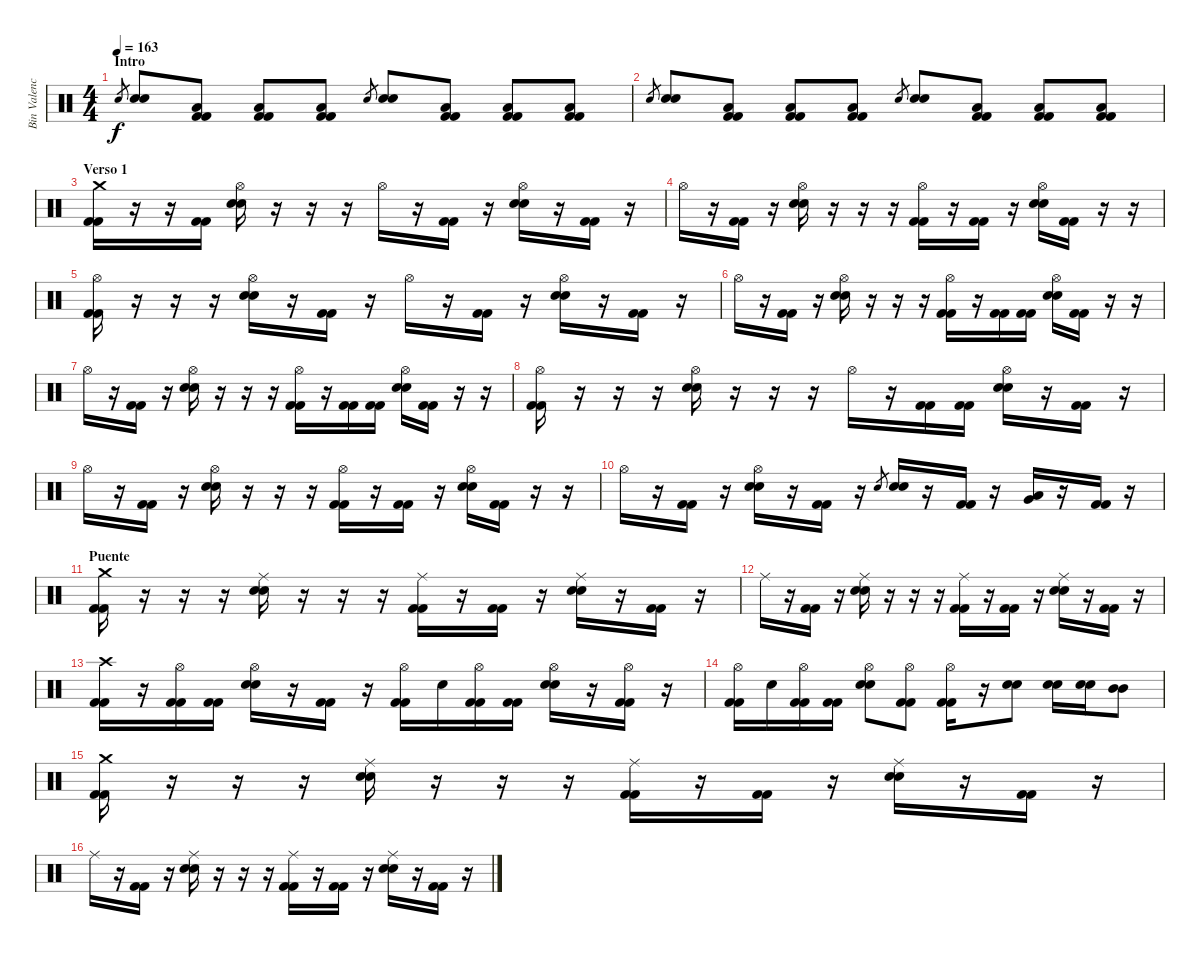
\track ("Bin Valencia" "Bin Valenc") {instrument percussion}
\staff {score}
\articulation defaults
\ts (4 4)
\section ("" "Intro")
\tempo 163
\clef neutral
\ks c "Snare (hit) 2".8{gr dy f}
("Snare (hit) 2" "Snare (hit) 2").8 ("Kick (hit) 2" "Kick (hit) 2" "Low Floor Tom (hit)").8 ("Kick (hit) 2" "Kick (hit) 2" "Low Floor Tom (hit)").8 ("Kick (hit) 2" "Kick (hit) 2" "Low Floor Tom (hit)").8 "Snare (hit) 2".8{gr} ("Snare (hit) 2" "Snare (hit) 2").8 ("Kick (hit) 2" "Kick (hit) 2" "Low Floor Tom (hit)").8 ("Kick (hit) 2" "Kick (hit) 2" "Low Floor Tom (hit)").8 ("Kick (hit) 2" "Kick (hit) 2" "Low Floor Tom (hit)").8 |
"Snare (hit) 2".8{gr} ("Snare (hit) 2" "Snare (hit) 2").8 ("Kick (hit) 2" "Kick (hit) 2" "Low Floor Tom (hit)").8 ("Kick (hit) 2" "Kick (hit) 2" "Low Floor Tom (hit)").8 ("Kick (hit) 2" "Kick (hit) 2" "Low Floor Tom (hit)").8 "Snare (hit) 2".8{gr} ("Snare (hit) 2" "Snare (hit) 2").8 ("Kick (hit) 2" "Kick (hit) 2" "Low Floor Tom (hit)").8 ("Kick (hit) 2" "Kick (hit) 2" "Low Floor Tom (hit)").8 ("Kick (hit) 2" "Kick (hit) 2" "Low Floor Tom (hit)").8 |
\section ("" "Verso 1")
("Crash medium (hit)" "Kick (hit) 2" "Kick (hit) 2").16 r.16 r.16 ("Kick (hit) 2" "Kick (hit) 2").16 ("Hi-Hat (open)" "Snare (hit) 2" "Snare (hit) 2").16 r.16 r.16 r.16 "Hi-Hat (open)".16 r.16 ("Kick (hit) 2" "Kick (hit) 2").16 r.16 ("Hi-Hat (open)" "Snare (hit) 2" "Snare (hit) 2").16 r.16 ("Kick (hit) 2" "Kick (hit) 2").16 r.16 |
"Hi-Hat (open)".16 r.16 ("Kick (hit) 2" "Kick (hit) 2").16 r.16 ("Hi-Hat (open)" "Snare (hit) 2" "Snare (hit) 2").16 r.16 r.16 r.16 ("Hi-Hat (open)" "Kick (hit) 2" "Kick (hit) 2").16 r.16 ("Kick (hit) 2" "Kick (hit) 2").16 r.16 ("Hi-Hat (open)" "Snare (hit) 2" "Snare (hit) 2").16 ("Kick (hit) 2" "Kick (hit) 2").16 r.16 r.16 |
("Hi-Hat (open)" "Kick (hit) 2" "Kick (hit) 2").16 r.16 r.16 r.16 ("Hi-Hat (open)" "Snare (hit) 2" "Snare (hit) 2").16 r.16 ("Kick (hit) 2" "Kick (hit) 2").16 r.16 "Hi-Hat (open)".16 r.16 ("Kick (hit) 2" "Kick (hit) 2").16 r.16 ("Hi-Hat (open)" "Snare (hit) 2" "Snare (hit) 2").16 r.16 ("Kick (hit) 2" "Kick (hit) 2").16 r.16 |
"Hi-Hat (open)".16 r.16 ("Kick (hit) 2" "Kick (hit) 2").16 r.16 ("Hi-Hat (open)" "Snare (hit) 2" "Snare (hit) 2").16 r.16 r.16 r.16 ("Hi-Hat (open)" "Kick (hit) 2" "Kick (hit) 2").16 r.16 ("Kick (hit) 2" "Kick (hit) 2").16 ("Kick (hit) 2" "Kick (hit) 2").16 ("Hi-Hat (open)" "Snare (hit) 2" "Snare (hit) 2").16 ("Kick (hit) 2" "Kick (hit) 2").16 r.16 r.16 |
"Hi-Hat (open)".16 r.16 ("Kick (hit) 2" "Kick (hit) 2").16 r.16 ("Hi-Hat (open)" "Snare (hit) 2" "Snare (hit) 2").16 r.16 r.16 r.16 ("Hi-Hat (open)" "Kick (hit) 2" "Kick (hit) 2").16 r.16 ("Kick (hit) 2" "Kick (hit) 2").16 ("Kick (hit) 2" "Kick (hit) 2").16 ("Hi-Hat (open)" "Snare (hit) 2" "Snare (hit) 2").16 ("Kick (hit) 2" "Kick (hit) 2").16 r.16 r.16 |
("Hi-Hat (open)" "Kick (hit) 2" "Kick (hit) 2").16 r.16 r.16 r.16 ("Hi-Hat (open)" "Snare (hit) 2" "Snare (hit) 2").16 r.16 r.16 r.16 "Hi-Hat (open)".16 r.16 ("Kick (hit) 2" "Kick (hit) 2").16 ("Kick (hit) 2" "Kick (hit) 2").16 ("Hi-Hat (open)" "Snare (hit) 2" "Snare (hit) 2").16 r.16 ("Kick (hit) 2" "Kick (hit) 2").16 r.16 |
"Hi-Hat (open)".16 r.16 ("Kick (hit) 2" "Kick (hit) 2").16 r.16 ("Hi-Hat (open)" "Snare (hit) 2" "Snare (hit) 2").16 r.16 r.16 r.16 ("Hi-Hat (open)" "Kick (hit) 2" "Kick (hit) 2").16 r.16 ("Kick (hit) 2" "Kick (hit) 2").16 r.16 ("Hi-Hat (open)" "Snare (hit) 2" "Snare (hit) 2").16 ("Kick (hit) 2" "Kick (hit) 2").16 r.16 r.16 |
"Hi-Hat (open)".16 r.16 ("Kick (hit) 2" "Kick (hit) 2").16 r.16 ("Hi-Hat (open)" "Snare (hit) 2" "Snare (hit) 2").16 r.16 ("Kick (hit) 2" "Kick (hit) 2").16 r.16 "Snare (hit) 2".8{gr} ("Snare (hit) 2" "Snare (hit) 2").16 r.16 ("Kick (hit) 2" "Kick (hit) 2").16 r.16 ("Very Low Tom (hit)" "Low Floor Tom (hit)").16 r.16 ("Kick (hit) 2" "Kick (hit) 2").16 r.16 |
\section ("" "Puente")
("Crash medium (hit)" "Kick (hit) 2" "Kick (hit) 2").16 r.16 r.16 r.16 ("Ride (middle)" "Snare (hit) 2" "Snare (hit) 2").16 r.16 r.16 r.16 ("Ride (middle)" "Kick (hit) 2" "Kick (hit) 2").16 r.16 ("Kick (hit) 2" "Kick (hit) 2").16 r.16 ("Ride (middle)" "Snare (hit) 2" "Snare (hit) 2").16 r.16 ("Kick (hit) 2" "Kick (hit) 2").16 r.16 |
"Ride (middle)".16 r.16 ("Kick (hit) 2" "Kick (hit) 2").16 r.16 ("Ride (middle)" "Snare (hit) 2" "Snare (hit) 2").16 r.16 r.16 r.16 ("Ride (middle)" "Kick (hit) 2" "Kick (hit) 2").16 r.16 ("Kick (hit) 2" "Kick (hit) 2").16 r.16 ("Ride (middle)" "Snare (hit) 2" "Snare (hit) 2").16 r.16 ("Kick (hit) 2" "Kick (hit) 2").16 r.16 |
("Crash high (hit)" "Kick (hit) 2" "Kick (hit) 2").16 r.16 ("Hi-Hat (open)" "Kick (hit) 2" "Kick (hit) 2").16 ("Kick (hit) 2" "Kick (hit) 2").16 ("Hi-Hat (open)" "Snare (hit) 2" "Snare (hit) 2").16 r.16 ("Kick (hit) 2" "Kick (hit) 2").16 r.16 ("Hi-Hat (open)" "Kick (hit) 2" "Kick (hit) 2").16 "Snare (hit) 2".16 ("Hi-Hat (open)" "Kick (hit) 2" "Kick (hit) 2").16 ("Kick (hit) 2" "Kick (hit) 2").16 ("Hi-Hat (open)" "Snare (hit) 2" "Snare (hit) 2").16 r.16 ("Hi-Hat (open)" "Kick (hit) 2" "Kick (hit) 2").16 r.16 |
("Hi-Hat (open)" "Kick (hit) 2" "Kick (hit) 2").16 "Snare (hit) 2".16 ("Hi-Hat (open)" "Kick (hit) 2" "Kick (hit) 2").16 ("Kick (hit) 2" "Kick (hit) 2").16 ("Hi-Hat (open)" "Snare (hit) 2" "Snare (hit) 2").8 ("Hi-Hat (open)" "Kick (hit) 2" "Kick (hit) 2").8 ("Hi-Hat (open)" "Kick (hit) 2" "Kick (hit) 2").16 r.16 ("Snare (hit) 2" "Snare (hit) 2").8 ("Snare (hit) 2" "Snare (hit) 2").16 ("Snare (hit) 2" "Snare (hit) 2").16 ("Mid Tom (hit)" "Mid Tom (hit)").8 |
("Crash medium (hit)" "Kick (hit) 2" "Kick (hit) 2").16 r.16 r.16 r.16 ("Ride (middle)" "Snare (hit) 2" "Snare (hit) 2").16 r.16 r.16 r.16 ("Ride (middle)" "Kick (hit) 2" "Kick (hit) 2").16 r.16 ("Kick (hit) 2" "Kick (hit) 2").16 r.16 ("Ride (middle)" "Snare (hit) 2" "Snare (hit) 2").16 r.16 ("Kick (hit) 2" "Kick (hit) 2").16 r.16 |
"Ride (middle)".16 r.16 ("Kick (hit) 2" "Kick (hit) 2").16 r.16 ("Ride (middle)" "Snare (hit) 2" "Snare (hit) 2").16 r.16 r.16 r.16 ("Ride (middle)" "Kick (hit) 2" "Kick (hit) 2").16 r.16 ("Kick (hit) 2" "Kick (hit) 2").16 r.16 ("Ride (middle)" "Snare (hit) 2" "Snare (hit) 2").16 r.16 ("Kick (hit) 2" "Kick (hit) 2").16 r.16
